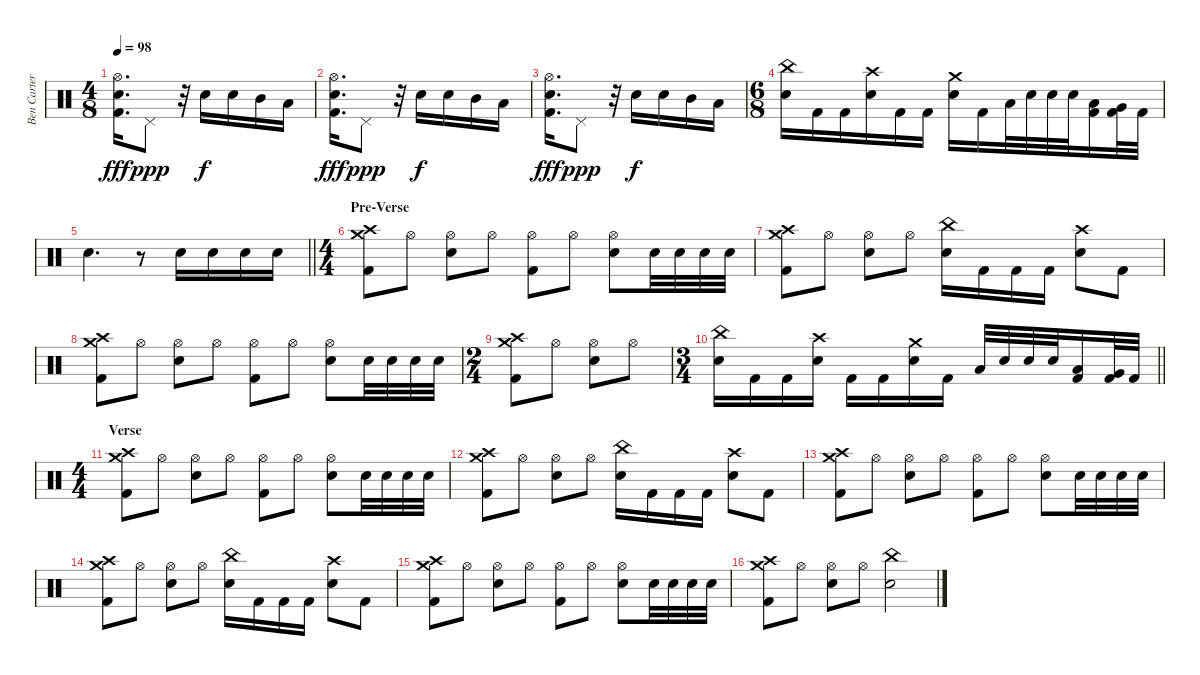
\track ("Ben Carter" "Ben Carter") {instrument percussion}
\staff {score}
\articulation defaults
\ts (4 8)
\tempo 98
\clef neutral
\ks c
("Hi-Hat (open)" "Snare (hit) 2" "Kick (hit) 2").16{d dy fff} "Pedal Hi-Hat (hit)".8{dy ppp} r.32 "Snare (hit) 2".16{dy f} "Snare (hit) 2".16 "Mid Tom (hit)".16 "Low Tom (hit)".16 |
("Hi-Hat (open)" "Snare (hit) 2" "Kick (hit) 2").16{d dy fff} "Pedal Hi-Hat (hit)".8{dy ppp} r.32 "Snare (hit) 2".16{dy f} "Snare (hit) 2".16 "Mid Tom (hit)".16 "Low Tom (hit)".16 |
("Hi-Hat (open)" "Snare (hit) 2" "Kick (hit) 2").16{d dy fff} "Pedal Hi-Hat (hit)".8{dy ppp} r.32 "Snare (hit) 2".16{dy f} "Snare (hit) 2".16 "Mid Tom (hit)".16 "Low Tom (hit)".16 |
\ts (6 8)
("China (hit)" "Snare (hit) 2").16 "Kick (hit) 2".16 "Kick (hit) 2".16 ("Crash high (hit)" "Snare (hit) 2").16 "Kick (hit) 2".16 "Kick (hit) 2".16 ("Crash medium (hit)" "Snare (hit) 2").16 "Kick (hit) 2".16 "Low Tom (hit)".32 "Snare (hit) 2".32 "Snare (hit) 2".32 "Snare (hit) 2".32 ("Low Tom (hit)" "Kick (hit) 2").16 ("Very Low Tom (hit)" "Kick (hit) 2").32 "Kick (hit) 2".32 |
\barLineRight lightlight "Snare (hit) 2".4{d}
r.8 "Snare (hit) 2".16 "Snare (hit) 2".16 "Snare (hit) 2".16 "Snare (hit) 2".16 |
\ts (4 4)
\section ("" "Pre-Verse")
("Crash medium (hit)" "Crash high (hit)" "Kick (hit) 2").8 "Hi-Hat (open)".8 ("Hi-Hat (open)" "Snare (hit) 2").8 "Hi-Hat (open)".8 ("Hi-Hat (open)" "Kick (hit) 2").8 "Hi-Hat (open)".8 ("Hi-Hat (open)" "Snare (hit) 2").8 "Snare (hit) 2".32 "Snare (hit) 2".32 "Snare (hit) 2".32 "Snare (hit) 2".32 |
("Crash medium (hit)" "Crash high (hit)" "Kick (hit) 2").8 "Hi-Hat (open)".8 ("Hi-Hat (open)" "Snare (hit) 2").8 "Hi-Hat (open)".8 ("China (hit)" "Snare (hit) 2").16 "Kick (hit) 2".16 "Kick (hit) 2".16 "Kick (hit) 2".16 ("Crash high (hit)" "Snare (hit) 2").8 "Kick (hit) 2".8 |
("Crash medium (hit)" "Crash high (hit)" "Kick (hit) 2").8 "Hi-Hat (open)".8 ("Hi-Hat (open)" "Snare (hit) 2").8 "Hi-Hat (open)".8 ("Hi-Hat (open)" "Kick (hit) 2").8 "Hi-Hat (open)".8 ("Hi-Hat (open)" "Snare (hit) 2").8 "Snare (hit) 2".32 "Snare (hit) 2".32 "Snare (hit) 2".32 "Snare (hit) 2".32 |
\ts (2 4)
("Crash medium (hit)" "Crash high (hit)" "Kick (hit) 2").8 "Hi-Hat (open)".8 ("Hi-Hat (open)" "Snare (hit) 2").8 "Hi-Hat (open)".8 |
\ts (3 4)
\barLineRight lightlight
("China (hit)" "Snare (hit) 2").16 "Kick (hit) 2".16 "Kick (hit) 2".16 ("Crash high (hit)" "Snare (hit) 2").16 "Kick (hit) 2".16 "Kick (hit) 2".16 ("Crash medium (hit)" "Snare (hit) 2").16 "Kick (hit) 2".16 "Low Tom (hit)".32 "Snare (hit) 2".32 "Snare (hit) 2".32 "Snare (hit) 2".32 ("Low Tom (hit)" "Kick (hit) 2").16 ("Very Low Tom (hit)" "Kick (hit) 2").32 "Kick (hit) 2".32 |
\ts (4 4)
\section ("" "Verse")
("Crash medium (hit)" "Crash high (hit)" "Kick (hit) 2").8 "Hi-Hat (open)".8 ("Hi-Hat (open)" "Snare (hit) 2").8 "Hi-Hat (open)".8 ("Hi-Hat (open)" "Kick (hit) 2").8 "Hi-Hat (open)".8 ("Hi-Hat (open)" "Snare (hit) 2").8 "Snare (hit) 2".32 "Snare (hit) 2".32 "Snare (hit) 2".32 "Snare (hit) 2".32 |
("Crash medium (hit)" "Crash high (hit)" "Kick (hit) 2").8 "Hi-Hat (open)".8 ("Hi-Hat (open)" "Snare (hit) 2").8 "Hi-Hat (open)".8 ("China (hit)" "Snare (hit) 2").16 "Kick (hit) 2".16 "Kick (hit) 2".16 "Kick (hit) 2".16 ("Crash high (hit)" "Snare (hit) 2").8 "Kick (hit) 2".8 |
("Crash medium (hit)" "Crash high (hit)" "Kick (hit) 2").8 "Hi-Hat (open)".8 ("Hi-Hat (open)" "Snare (hit) 2").8 "Hi-Hat (open)".8 ("Hi-Hat (open)" "Kick (hit) 2").8 "Hi-Hat (open)".8 ("Hi-Hat (open)" "Snare (hit) 2").8 "Snare (hit) 2".32 "Snare (hit) 2".32 "Snare (hit) 2".32 "Snare (hit) 2".32 |
("Crash medium (hit)" "Crash high (hit)" "Kick (hit) 2").8 "Hi-Hat (open)".8 ("Hi-Hat (open)" "Snare (hit) 2").8 "Hi-Hat (open)".8 ("China (hit)" "Snare (hit) 2").16 "Kick (hit) 2".16 "Kick (hit) 2".16 "Kick (hit) 2".16 ("Crash high (hit)" "Snare (hit) 2").8 "Kick (hit) 2".8 |
("Crash medium (hit)" "Crash high (hit)" "Kick (hit) 2").8 "Hi-Hat (open)".8 ("Hi-Hat (open)" "Snare (hit) 2").8 "Hi-Hat (open)".8 ("Hi-Hat (open)" "Kick (hit) 2").8 "Hi-Hat (open)".8 ("Hi-Hat (open)" "Snare (hit) 2").8 "Snare (hit) 2".32 "Snare (hit) 2".32 "Snare (hit) 2".32 "Snare (hit) 2".32 |
("Crash medium (hit)" "Crash high (hit)" "Kick (hit) 2").8 "Hi-Hat (open)".8 ("Hi-Hat (open)" "Snare (hit) 2").8 "Hi-Hat (open)".8 ("China (hit)" "Snare (hit) 2").2
